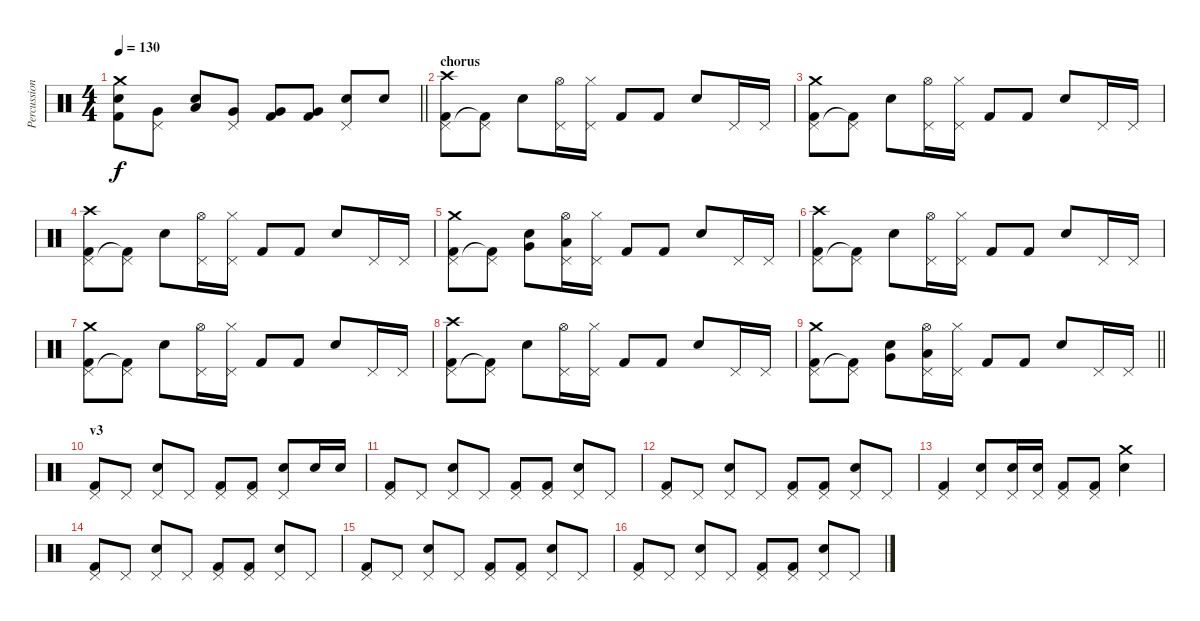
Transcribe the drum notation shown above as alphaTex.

\track ("Percussion" "Percussion") {instrument percussion}
\staff {score}
\articulation defaults
\ts (4 4)
\tempo 130
\clef neutral
\barLineRight lightlight
\ks c
("Crash medium (hit)" "Electric Snare (hit)" "Kick (hit) 2").8{dy f} ("Pedal Hi-Hat (hit)" "Very Low Tom (hit)").8 ("Electric Snare (hit)" "Low Floor Tom (hit)").8 ("Pedal Hi-Hat (hit)" "Very Low Tom (hit)").8 ("Very Low Tom (hit)" "Kick (hit) 2").8 ("Very Low Tom (hit)" "Kick (hit) 2").8 ("Pedal Hi-Hat (hit)" "Electric Snare (hit)").8 "Electric Snare (hit)".8 |
\section ("" "chorus")
("Crash high (hit)" "Pedal Hi-Hat (hit)" "Kick (hit) 2").8 ("Pedal Hi-Hat (hit)" "Kick (hit) 2"{t}).8 "Electric Snare (hit)".8 ("Hi-Hat (open)" "Pedal Hi-Hat (hit)").16 ("Hi-Hat (closed)" "Pedal Hi-Hat (hit)").16 "Kick (hit) 2".8 "Kick (hit) 2".8 "Electric Snare (hit)".8 "Pedal Hi-Hat (hit)".16 "Pedal Hi-Hat (hit)".16 |
("Crash medium (hit)" "Pedal Hi-Hat (hit)" "Kick (hit) 2").8 ("Pedal Hi-Hat (hit)" "Kick (hit) 2"{t}).8 "Electric Snare (hit)".8 ("Hi-Hat (open)" "Pedal Hi-Hat (hit)").16 ("Hi-Hat (closed)" "Pedal Hi-Hat (hit)").16 "Kick (hit) 2".8 "Kick (hit) 2".8 "Electric Snare (hit)".8 "Pedal Hi-Hat (hit)".16 "Pedal Hi-Hat (hit)".16 |
("Crash high (hit)" "Pedal Hi-Hat (hit)" "Kick (hit) 2").8 ("Pedal Hi-Hat (hit)" "Kick (hit) 2"{t}).8 "Electric Snare (hit)".8 ("Hi-Hat (open)" "Pedal Hi-Hat (hit)").16 ("Hi-Hat (closed)" "Pedal Hi-Hat (hit)").16 "Kick (hit) 2".8 "Kick (hit) 2".8 "Electric Snare (hit)".8 "Pedal Hi-Hat (hit)".16 "Pedal Hi-Hat (hit)".16 |
("Crash medium (hit)" "Pedal Hi-Hat (hit)" "Kick (hit) 2").8 ("Pedal Hi-Hat (hit)" "Kick (hit) 2"{t}).8 ("Very Low Tom (hit)" "Electric Snare (hit)").8 ("Low Floor Tom (hit)" "Hi-Hat (open)" "Pedal Hi-Hat (hit)").16 ("Hi-Hat (closed)" "Pedal Hi-Hat (hit)").16 "Kick (hit) 2".8 "Kick (hit) 2".8 "Electric Snare (hit)".8 "Pedal Hi-Hat (hit)".16 "Pedal Hi-Hat (hit)".16 |
("Crash high (hit)" "Pedal Hi-Hat (hit)" "Kick (hit) 2").8 ("Pedal Hi-Hat (hit)" "Kick (hit) 2"{t}).8 "Electric Snare (hit)".8 ("Hi-Hat (open)" "Pedal Hi-Hat (hit)").16 ("Hi-Hat (closed)" "Pedal Hi-Hat (hit)").16 "Kick (hit) 2".8 "Kick (hit) 2".8 "Electric Snare (hit)".8 "Pedal Hi-Hat (hit)".16 "Pedal Hi-Hat (hit)".16 |
("Crash medium (hit)" "Pedal Hi-Hat (hit)" "Kick (hit) 2").8 ("Pedal Hi-Hat (hit)" "Kick (hit) 2"{t}).8 "Electric Snare (hit)".8 ("Hi-Hat (open)" "Pedal Hi-Hat (hit)").16 ("Hi-Hat (closed)" "Pedal Hi-Hat (hit)").16 "Kick (hit) 2".8 "Kick (hit) 2".8 "Electric Snare (hit)".8 "Pedal Hi-Hat (hit)".16 "Pedal Hi-Hat (hit)".16 |
("Crash high (hit)" "Pedal Hi-Hat (hit)" "Kick (hit) 2").8 ("Pedal Hi-Hat (hit)" "Kick (hit) 2"{t}).8 "Electric Snare (hit)".8 ("Hi-Hat (open)" "Pedal Hi-Hat (hit)").16 ("Hi-Hat (closed)" "Pedal Hi-Hat (hit)").16 "Kick (hit) 2".8 "Kick (hit) 2".8 "Electric Snare (hit)".8 "Pedal Hi-Hat (hit)".16 "Pedal Hi-Hat (hit)".16 |
\barLineRight lightlight
("Crash medium (hit)" "Pedal Hi-Hat (hit)" "Kick (hit) 2").8 ("Pedal Hi-Hat (hit)" "Kick (hit) 2"{t}).8 ("Very Low Tom (hit)" "Electric Snare (hit)").8 ("Low Floor Tom (hit)" "Hi-Hat (open)" "Pedal Hi-Hat (hit)").16 ("Hi-Hat (closed)" "Pedal Hi-Hat (hit)").16 "Kick (hit) 2".8 "Kick (hit) 2".8 "Electric Snare (hit)".8 "Pedal Hi-Hat (hit)".16 "Pedal Hi-Hat (hit)".16 |
\section ("" "v3")
("Pedal Hi-Hat (hit)" "Kick (hit) 2").8 "Pedal Hi-Hat (hit)".8 ("Pedal Hi-Hat (hit)" "Electric Snare (hit)").8 "Pedal Hi-Hat (hit)".8 ("Pedal Hi-Hat (hit)" "Kick (hit) 2").8 ("Pedal Hi-Hat (hit)" "Kick (hit) 2").8 ("Pedal Hi-Hat (hit)" "Electric Snare (hit)").8 "Electric Snare (hit)".16 "Electric Snare (hit)".16 |
("Pedal Hi-Hat (hit)" "Kick (hit) 2").8 "Pedal Hi-Hat (hit)".8 ("Pedal Hi-Hat (hit)" "Electric Snare (hit)").8 "Pedal Hi-Hat (hit)".8 ("Pedal Hi-Hat (hit)" "Kick (hit) 2").8 ("Pedal Hi-Hat (hit)" "Kick (hit) 2").8 ("Pedal Hi-Hat (hit)" "Electric Snare (hit)").8 "Pedal Hi-Hat (hit)".8 |
("Pedal Hi-Hat (hit)" "Kick (hit) 2").8 "Pedal Hi-Hat (hit)".8 ("Pedal Hi-Hat (hit)" "Electric Snare (hit)").8 "Pedal Hi-Hat (hit)".8 ("Pedal Hi-Hat (hit)" "Kick (hit) 2").8 ("Pedal Hi-Hat (hit)" "Kick (hit) 2").8 ("Pedal Hi-Hat (hit)" "Electric Snare (hit)").8 "Pedal Hi-Hat (hit)".8 |
("Pedal Hi-Hat (hit)" "Kick (hit) 2").4 ("Pedal Hi-Hat (hit)" "Electric Snare (hit)").8 ("Pedal Hi-Hat (hit)" "Electric Snare (hit)").16 ("Pedal Hi-Hat (hit)" "Electric Snare (hit)").16 ("Pedal Hi-Hat (hit)" "Kick (hit) 2").8 ("Pedal Hi-Hat (hit)" "Kick (hit) 2").8 ("Crash medium (hit)" "Electric Snare (hit)").4 |
("Pedal Hi-Hat (hit)" "Kick (hit) 2").8 "Pedal Hi-Hat (hit)".8 ("Pedal Hi-Hat (hit)" "Electric Snare (hit)").8 "Pedal Hi-Hat (hit)".8 ("Pedal Hi-Hat (hit)" "Kick (hit) 2").8 ("Pedal Hi-Hat (hit)" "Kick (hit) 2").8 ("Pedal Hi-Hat (hit)" "Electric Snare (hit)").8 "Pedal Hi-Hat (hit)".8 |
("Pedal Hi-Hat (hit)" "Kick (hit) 2").8 "Pedal Hi-Hat (hit)".8 ("Pedal Hi-Hat (hit)" "Electric Snare (hit)").8 "Pedal Hi-Hat (hit)".8 ("Pedal Hi-Hat (hit)" "Kick (hit) 2").8 ("Pedal Hi-Hat (hit)" "Kick (hit) 2").8 ("Pedal Hi-Hat (hit)" "Electric Snare (hit)").8 "Pedal Hi-Hat (hit)".8 |
("Pedal Hi-Hat (hit)" "Kick (hit) 2").8 "Pedal Hi-Hat (hit)".8 ("Pedal Hi-Hat (hit)" "Electric Snare (hit)").8 "Pedal Hi-Hat (hit)".8 ("Pedal Hi-Hat (hit)" "Kick (hit) 2").8 ("Pedal Hi-Hat (hit)" "Kick (hit) 2").8 ("Pedal Hi-Hat (hit)" "Electric Snare (hit)").8 "Pedal Hi-Hat (hit)".8
